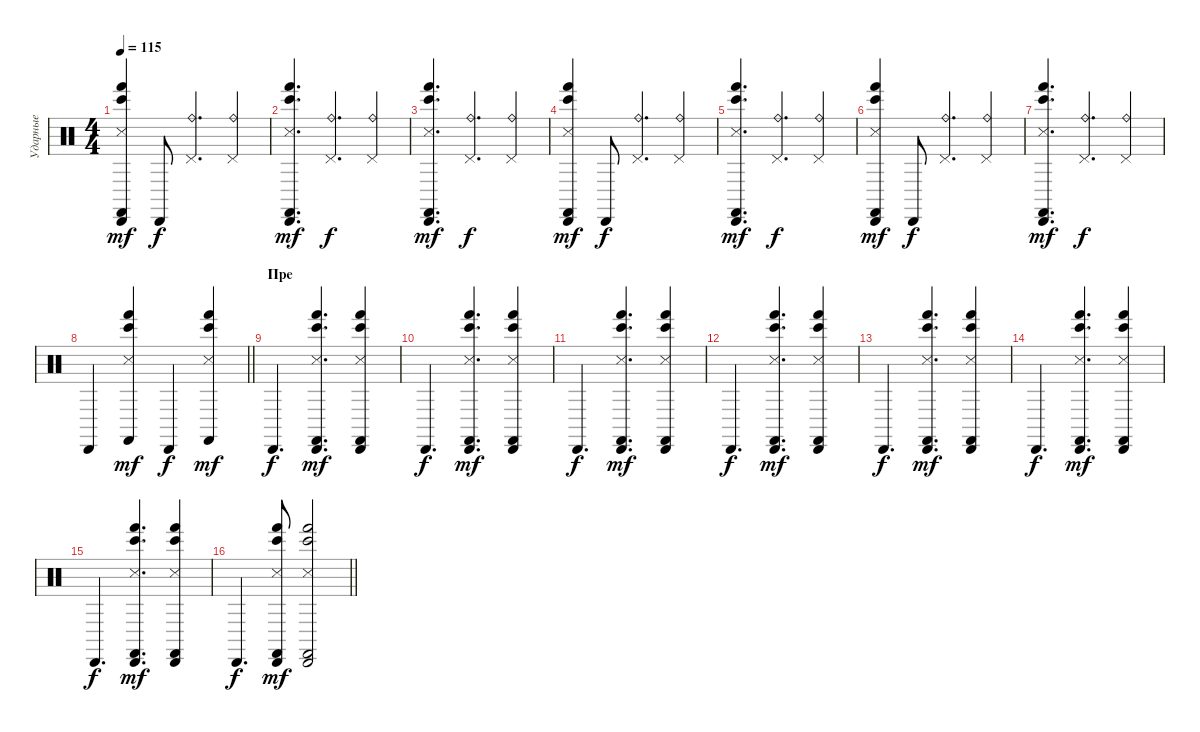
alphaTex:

\track ("Ударные" "Ударные") {instrument percussion}
\staff {score}
\articulation defaults
\ts (4 4)
\tempo 115
\clef neutral
\ks c
("Castanets (hit)" "Hand (hit)" "Snare (side stick) 3" "Bongo High (hit)" "Cabasa (hit)").4{dy mf} "Cabasa (hit)".8{dy f} ("Pedal Hi-Hat (hit)" "Ride (bell)").4{d} ("Pedal Hi-Hat (hit)" "Ride (bell)").4 |
("Castanets (hit)" "Hand (hit)" "Snare (side stick) 3" "Bongo High (hit)" "Cabasa (hit)").4{d dy mf} ("Pedal Hi-Hat (hit)" "Ride (bell)").4{d dy f} ("Pedal Hi-Hat (hit)" "Ride (bell)").4 |
("Castanets (hit)" "Hand (hit)" "Snare (side stick) 3" "Bongo High (hit)" "Cabasa (hit)").4{d dy mf} ("Pedal Hi-Hat (hit)" "Ride (bell)").4{d dy f} ("Pedal Hi-Hat (hit)" "Ride (bell)").4 |
("Castanets (hit)" "Hand (hit)" "Snare (side stick) 3" "Bongo High (hit)" "Cabasa (hit)").4{dy mf} "Cabasa (hit)".8{dy f} ("Pedal Hi-Hat (hit)" "Ride (bell)").4{d} ("Pedal Hi-Hat (hit)" "Ride (bell)").4 |
("Castanets (hit)" "Hand (hit)" "Snare (side stick) 3" "Bongo High (hit)" "Cabasa (hit)").4{d dy mf} ("Pedal Hi-Hat (hit)" "Ride (bell)").4{d dy f} ("Pedal Hi-Hat (hit)" "Ride (bell)").4 |
("Castanets (hit)" "Hand (hit)" "Snare (side stick) 3" "Bongo High (hit)" "Cabasa (hit)").4{dy mf} "Cabasa (hit)".8{dy f} ("Pedal Hi-Hat (hit)" "Ride (bell)").4{d} ("Pedal Hi-Hat (hit)" "Ride (bell)").4 |
("Castanets (hit)" "Hand (hit)" "Snare (side stick) 3" "Bongo High (hit)" "Cabasa (hit)").4{d dy mf} ("Pedal Hi-Hat (hit)" "Ride (bell)").4{d dy f} ("Pedal Hi-Hat (hit)" "Ride (bell)").4 |
\barLineRight lightlight "Cabasa (hit)".4
("Castanets (hit)" "Hand (hit)" "Snare (side stick) 3" "Bongo High (hit)").4{dy mf} "Cabasa (hit)".4{dy f} ("Castanets (hit)" "Hand (hit)" "Snare (side stick) 3" "Bongo High (hit)").4{dy mf} |
\section ("" "Пре")
"Cabasa (hit)".4{d dy f} ("Castanets (hit)" "Hand (hit)" "Snare (side stick) 3" "Bongo High (hit)" "Cabasa (hit)").4{d dy mf} ("Castanets (hit)" "Hand (hit)" "Snare (side stick) 3" "Bongo High (hit)" "Cabasa (hit)").4 |
"Cabasa (hit)".4{d dy f} ("Castanets (hit)" "Hand (hit)" "Snare (side stick) 3" "Bongo High (hit)" "Cabasa (hit)").4{d dy mf} ("Castanets (hit)" "Hand (hit)" "Snare (side stick) 3" "Bongo High (hit)" "Cabasa (hit)").4 |
"Cabasa (hit)".4{d dy f} ("Castanets (hit)" "Hand (hit)" "Snare (side stick) 3" "Bongo High (hit)" "Cabasa (hit)").4{d dy mf} ("Castanets (hit)" "Hand (hit)" "Snare (side stick) 3" "Bongo High (hit)" "Cabasa (hit)").4 |
"Cabasa (hit)".4{d dy f} ("Castanets (hit)" "Hand (hit)" "Snare (side stick) 3" "Bongo High (hit)" "Cabasa (hit)").4{d dy mf} ("Castanets (hit)" "Hand (hit)" "Snare (side stick) 3" "Bongo High (hit)" "Cabasa (hit)").4 |
"Cabasa (hit)".4{d dy f} ("Castanets (hit)" "Hand (hit)" "Snare (side stick) 3" "Bongo High (hit)" "Cabasa (hit)").4{d dy mf} ("Castanets (hit)" "Hand (hit)" "Snare (side stick) 3" "Bongo High (hit)" "Cabasa (hit)").4 |
"Cabasa (hit)".4{d dy f} ("Castanets (hit)" "Hand (hit)" "Snare (side stick) 3" "Bongo High (hit)" "Cabasa (hit)").4{d dy mf} ("Castanets (hit)" "Hand (hit)" "Snare (side stick) 3" "Bongo High (hit)" "Cabasa (hit)").4 |
"Cabasa (hit)".4{d dy f} ("Castanets (hit)" "Hand (hit)" "Snare (side stick) 3" "Bongo High (hit)" "Cabasa (hit)").4{d dy mf} ("Castanets (hit)" "Hand (hit)" "Snare (side stick) 3" "Bongo High (hit)" "Cabasa (hit)").4 |
\barLineRight lightlight "Cabasa (hit)".4{d dy f}
("Castanets (hit)" "Hand (hit)" "Snare (side stick) 3" "Bongo High (hit)" "Cabasa (hit)").8{dy mf} ("Castanets (hit)" "Hand (hit)" "Snare (side stick) 3" "Bongo High (hit)" "Cabasa (hit)").2
